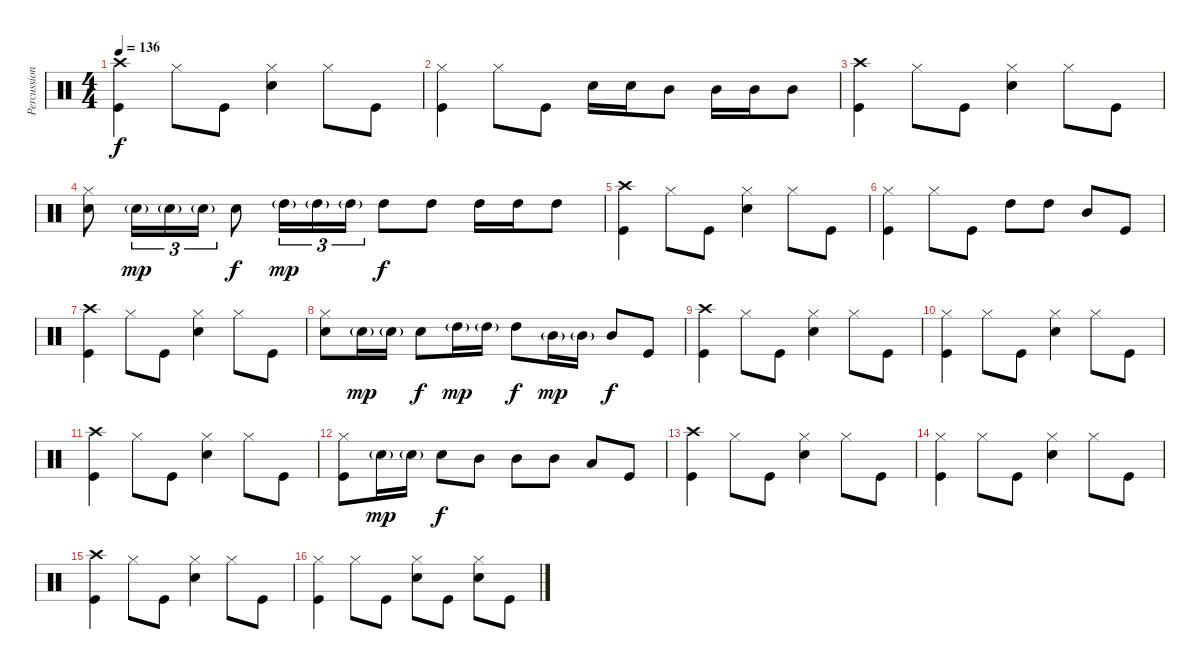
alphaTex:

\track ("Percussion" "Percussion") {instrument percussion}
\staff {score}
\articulation defaults
\ts (4 4)
\tempo 136
\clef neutral
\ks c
("Crash high (hit)" "Kick (hit)").4{dy f} "Hi-Hat (closed)".8 "Kick (hit)".8 ("Hi-Hat (closed)" "Snare (hit) 2").4 "Hi-Hat (closed)".8 "Kick (hit)".8 |
("Hi-Hat (closed)" "Kick (hit)").4 "Hi-Hat (closed)".8 "Kick (hit)".8 "Snare (hit) 2".16 "Snare (hit) 2".16 "Mid Tom (hit)".8 "Mid Tom (hit)".16 "Mid Tom (hit)".16 "Mid Tom (hit)".8 |
("Crash high (hit)" "Kick (hit)").4 "Hi-Hat (closed)".8 "Kick (hit)".8 ("Hi-Hat (closed)" "Snare (hit) 2").4 "Hi-Hat (closed)".8 "Kick (hit)".8 |
("Hi-Hat (closed)" "Snare (hit) 2").8 "Snare (hit) 2"{g}.16{tu (3 2) dy mp} "Snare (hit) 2"{g}.16{tu (3 2)} "Snare (hit) 2"{g}.16{tu (3 2)} "Snare (hit) 2".8{dy f} "High Tom (hit)"{g}.16{tu (3 2) dy mp} "High Tom (hit)"{g}.16{tu (3 2)} "High Tom (hit)"{g}.16{tu (3 2)} "High Tom (hit)".8{dy f} "High Tom (hit)".8 "High Tom (hit)".16 "High Tom (hit)".16 "High Tom (hit)".8 |
("Crash high (hit)" "Kick (hit)").4 "Hi-Hat (closed)".8 "Kick (hit)".8 ("Hi-Hat (closed)" "Snare (hit) 2").4 "Hi-Hat (closed)".8 "Kick (hit)".8 |
("Hi-Hat (closed)" "Kick (hit)").4 "Hi-Hat (closed)".8 "Kick (hit)".8 "High Tom (hit)".8 "High Tom (hit)".8 "Mid Tom (hit)".8 "Kick (hit)".8 |
("Crash high (hit)" "Kick (hit)").4 "Hi-Hat (closed)".8 "Kick (hit)".8 ("Hi-Hat (closed)" "Snare (hit) 2").4 "Hi-Hat (closed)".8 "Kick (hit)".8 |
("Hi-Hat (closed)" "Snare (hit) 2").8 "Snare (hit) 2"{g}.16{dy mp} "Snare (hit) 2"{g}.16 "Snare (hit) 2".8{dy f} "High Tom (hit)"{g}.16{dy mp} "High Tom (hit)"{g}.16 "High Tom (hit)".8{dy f} "Mid Tom (hit)"{g}.16{dy mp} "Mid Tom (hit)"{g}.16 "Mid Tom (hit)".8{dy f} "Kick (hit)".8 |
("Crash high (hit)" "Kick (hit)").4 "Hi-Hat (closed)".8 "Kick (hit)".8 ("Hi-Hat (closed)" "Snare (hit) 2").4 "Hi-Hat (closed)".8 "Kick (hit)".8 |
("Hi-Hat (closed)" "Kick (hit)").4 "Hi-Hat (closed)".8 "Kick (hit)".8 ("Hi-Hat (closed)" "Snare (hit) 2").4 "Hi-Hat (closed)".8 "Kick (hit)".8 |
("Crash high (hit)" "Kick (hit)").4 "Hi-Hat (closed)".8 "Kick (hit)".8 ("Hi-Hat (closed)" "Snare (hit) 2").4 "Hi-Hat (closed)".8 "Kick (hit)".8 |
("Hi-Hat (closed)" "Kick (hit)").8 "Snare (hit) 2"{g}.16{dy mp} "Snare (hit) 2"{g}.16 "Snare (hit) 2".8{dy f} "Mid Tom (hit)".8 "Mid Tom (hit)".8 "Mid Tom (hit)".8 "Low Floor Tom (hit)".8 "Kick (hit)".8 |
("Crash high (hit)" "Kick (hit)").4 "Hi-Hat (closed)".8 "Kick (hit)".8 ("Hi-Hat (closed)" "Snare (hit) 2").4 "Hi-Hat (closed)".8 "Kick (hit)".8 |
("Hi-Hat (closed)" "Kick (hit)").4 "Hi-Hat (closed)".8 "Kick (hit)".8 ("Hi-Hat (closed)" "Snare (hit) 2").4 "Hi-Hat (closed)".8 "Kick (hit)".8 |
("Crash high (hit)" "Kick (hit)").4 "Hi-Hat (closed)".8 "Kick (hit)".8 ("Hi-Hat (closed)" "Snare (hit) 2").4 "Hi-Hat (closed)".8 "Kick (hit)".8 |
("Hi-Hat (closed)" "Kick (hit)").4 "Hi-Hat (closed)".8 "Kick (hit)".8 ("Hi-Hat (closed)" "Snare (hit) 2").8 "Kick (hit)".8 ("Hi-Hat (closed)" "Snare (hit) 2").8 "Kick (hit)".8
